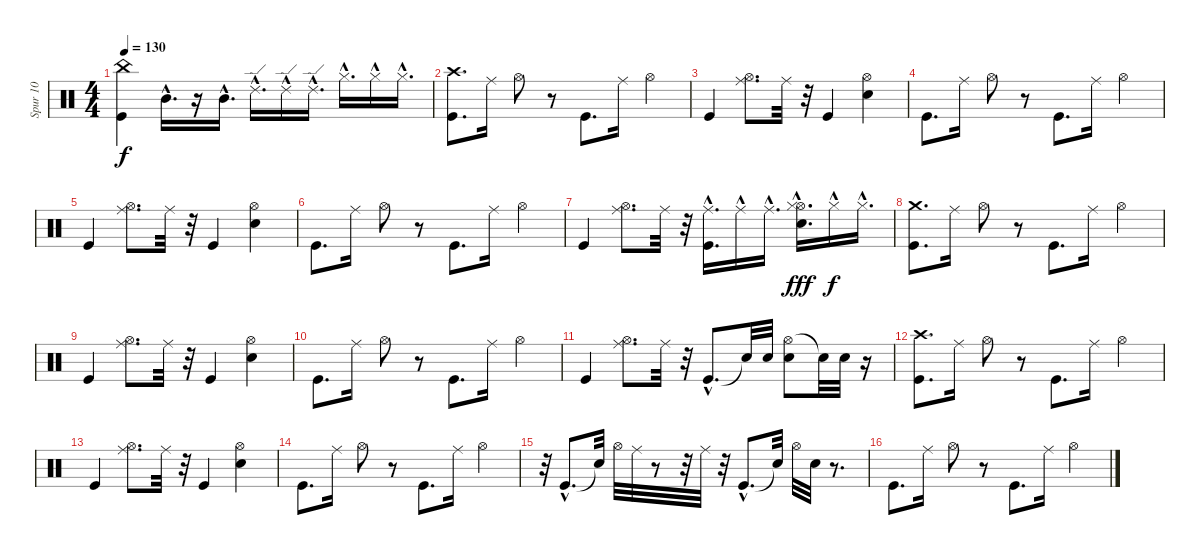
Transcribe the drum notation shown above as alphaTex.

\track ("Spur 10" "Spur 10") {instrument percussion}
\staff {score}
\articulation defaults
\ts (4 4)
\tempo 130
\clef neutral
\ks c
("China (hit)" "Kick (hit)").4{dy f} "Mid Tom (hit)"{hac}.16{d} r.16 "Mid Tom (hit)"{hac}.16{d} "Ride (edge) 2"{hac}.16{d} "Ride (edge) 2"{hac}.16 "Ride (edge) 2"{hac}.16{d} "Hi-Hat (closed)"{hac}.16{d} "Hi-Hat (closed)"{hac}.16 "Hi-Hat (closed)"{hac}.16{d} |
("Crash high (hit)" "Kick (hit)").8{d} "Ride (middle)".16 "Hi-Hat (open)".8 r.8 "Kick (hit)".8{d} "Ride (middle)".16 "Hi-Hat (open)".4 |
"Kick (hit)".4 ("Hi-Hat (open)" "Ride (middle)").8{d} "Ride (middle)".32 r.32 "Kick (hit)".4 ("Hi-Hat (open)" "Electric Snare (hit)").4 |
"Kick (hit)".8{d} "Ride (middle)".16 "Hi-Hat (open)".8 r.8 "Kick (hit)".8{d} "Ride (middle)".16 "Hi-Hat (open)".4 |
"Kick (hit)".4 ("Hi-Hat (open)" "Ride (middle)").8{d} "Ride (middle)".32 r.32 "Kick (hit)".4 ("Hi-Hat (open)" "Electric Snare (hit)").4 |
"Kick (hit)".8{d} "Ride (middle)".16 "Hi-Hat (open)".8 r.8 "Kick (hit)".8{d} "Ride (middle)".16 "Hi-Hat (open)".4 |
"Kick (hit)".4 ("Hi-Hat (open)" "Ride (middle)").8{d} "Ride (middle)".32 r.32 ("Kick (hit)" "Ride (middle)"{hac}).16{d} "Ride (middle)"{hac}.16 "Ride (middle)"{hac}.16{d} ("Hi-Hat (open)" "Hi-Hat (closed)"{hac} "Electric Snare (hit)").16{d dy fff} "Hi-Hat (closed)"{hac}.16{dy f} "Hi-Hat (closed)"{hac}.16{d} |
("Kick (hit)" "Crash medium (hit)").8{d} "Ride (middle)".16 "Hi-Hat (open)".8 r.8 "Kick (hit)".8{d} "Ride (middle)".16 "Hi-Hat (open)".4 |
"Kick (hit)".4 ("Hi-Hat (open)" "Ride (middle)").8{d} "Ride (middle)".32 r.32 "Kick (hit)".4 ("Hi-Hat (open)" "Electric Snare (hit)").4 |
"Kick (hit)".8{d} "Ride (middle)".16 "Hi-Hat (open)".8 r.8 "Kick (hit)".8{d} "Ride (middle)".16 "Hi-Hat (open)".4 |
"Kick (hit)".4 ("Hi-Hat (open)" "Ride (middle)").8{d} "Ride (middle)".32 r.32 "Kick (hit)"{hac}.8{d} "Snare (hit)"{t}.32 "Electric Snare (hit)".32 ("Hi-Hat (open)" "Electric Snare (hit)").8 "Snare (hit)"{t}.32 "Electric Snare (hit)".32 r.16 |
("Crash high (hit)" "Kick (hit)").8{d} "Ride (middle)".16 "Hi-Hat (open)".8 r.8 "Kick (hit)".8{d} "Ride (middle)".16 "Hi-Hat (open)".4 |
"Kick (hit)".4 ("Hi-Hat (open)" "Ride (middle)").8{d} "Ride (middle)".32 r.32 "Kick (hit)".4 ("Hi-Hat (open)" "Electric Snare (hit)").4 |
"Kick (hit)".8{d} "Ride (middle)".16 "Hi-Hat (open)".8 r.8 "Kick (hit)".8{d} "Ride (middle)".16 "Hi-Hat (open)".4 |
r.32 "Kick (hit)"{hac}.8{d} "Snare (hit)"{t}.32 "Hi-Hat (open)".32 "Ride (middle)".32 r.8 r.32 "Ride (middle)".32 r.32 "Kick (hit)"{hac}.8{d} "Snare (hit)"{t}.32 "Hi-Hat (open)".32 "Electric Snare (hit)".32 r.8{d} |
"Kick (hit)".8{d} "Ride (middle)".16 "Hi-Hat (open)".8 r.8 "Kick (hit)".8{d} "Ride (middle)".16 "Hi-Hat (open)".4
